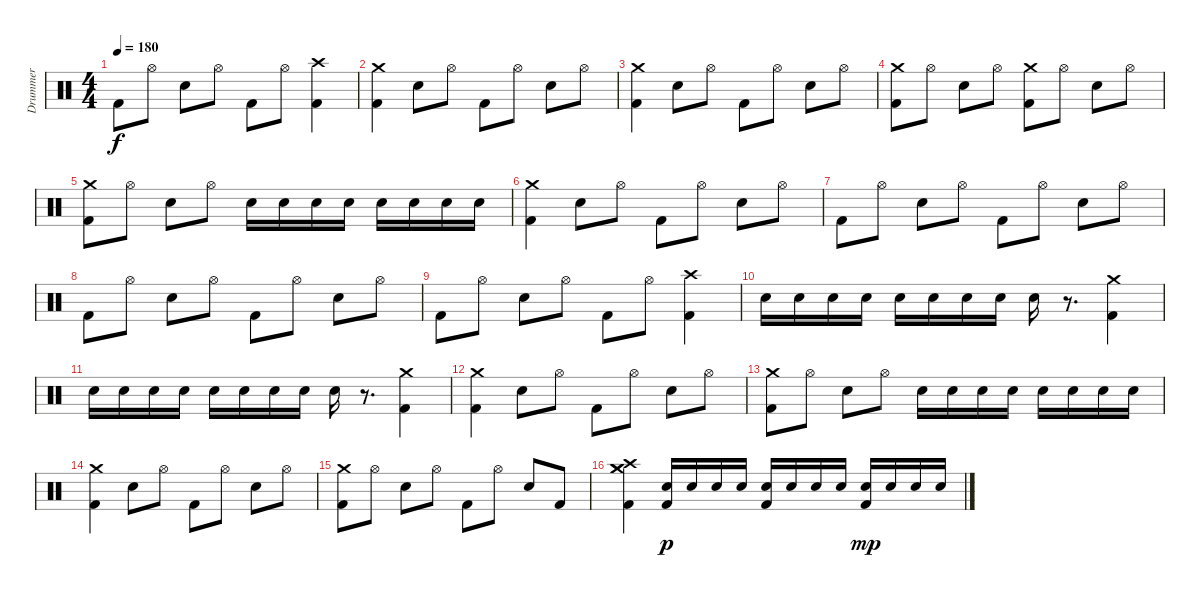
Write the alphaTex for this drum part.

\track ("Drummer" "Drummer") {instrument percussion}
\staff {score}
\articulation defaults
\ts (4 4)
\tempo 180
\clef neutral
\ks c "Kick (hit) 2".8{dy f} "Hi-Hat (open)".8 "Electric Snare (hit)".8 "Hi-Hat (open)".8 "Kick (hit) 2".8 "Hi-Hat (open)".8
("Crash high (hit)" "Kick (hit) 2").4 |
("Crash medium (hit)" "Kick (hit) 2").4 "Electric Snare (hit)".8 "Hi-Hat (open)".8 "Kick (hit) 2".8 "Hi-Hat (open)".8 "Electric Snare (hit)".8 "Hi-Hat (open)".8 |
("Crash medium (hit)" "Kick (hit) 2").4 "Electric Snare (hit)".8 "Hi-Hat (open)".8 "Kick (hit) 2".8 "Hi-Hat (open)".8 "Electric Snare (hit)".8 "Hi-Hat (open)".8 |
("Crash medium (hit)" "Kick (hit) 2").8 "Hi-Hat (open)".8 "Electric Snare (hit)".8 "Hi-Hat (open)".8 ("Crash medium (hit)" "Kick (hit) 2").8 "Hi-Hat (open)".8 "Electric Snare (hit)".8 "Hi-Hat (open)".8 |
("Crash medium (hit)" "Kick (hit) 2").8 "Hi-Hat (open)".8 "Electric Snare (hit)".8 "Hi-Hat (open)".8 "Electric Snare (hit)".16 "Electric Snare (hit)".16 "Electric Snare (hit)".16 "Electric Snare (hit)".16 "Electric Snare (hit)".16 "Electric Snare (hit)".16 "Electric Snare (hit)".16 "Electric Snare (hit)".16 |
("Crash medium (hit)" "Kick (hit) 2").4 "Electric Snare (hit)".8 "Hi-Hat (open)".8 "Kick (hit) 2".8 "Hi-Hat (open)".8 "Electric Snare (hit)".8 "Hi-Hat (open)".8 |
"Kick (hit) 2".8 "Hi-Hat (open)".8 "Electric Snare (hit)".8 "Hi-Hat (open)".8 "Kick (hit) 2".8 "Hi-Hat (open)".8 "Electric Snare (hit)".8 "Hi-Hat (open)".8 |
"Kick (hit) 2".8 "Hi-Hat (open)".8 "Electric Snare (hit)".8 "Hi-Hat (open)".8 "Kick (hit) 2".8 "Hi-Hat (open)".8 "Electric Snare (hit)".8 "Hi-Hat (open)".8 |
"Kick (hit) 2".8 "Hi-Hat (open)".8 "Electric Snare (hit)".8 "Hi-Hat (open)".8 "Kick (hit) 2".8 "Hi-Hat (open)".8 ("Crash high (hit)" "Kick (hit) 2").4 |
"Electric Snare (hit)".16 "Electric Snare (hit)".16 "Electric Snare (hit)".16 "Electric Snare (hit)".16 "Electric Snare (hit)".16 "Electric Snare (hit)".16 "Electric Snare (hit)".16 "Electric Snare (hit)".16 "Electric Snare (hit)".16 r.8{d} ("Crash medium (hit)" "Kick (hit) 2").4 |
"Electric Snare (hit)".16 "Electric Snare (hit)".16 "Electric Snare (hit)".16 "Electric Snare (hit)".16 "Electric Snare (hit)".16 "Electric Snare (hit)".16 "Electric Snare (hit)".16 "Electric Snare (hit)".16 "Electric Snare (hit)".16 r.8{d} ("Crash medium (hit)" "Kick (hit) 2").4 |
("Crash medium (hit)" "Kick (hit) 2").4 "Electric Snare (hit)".8 "Hi-Hat (open)".8 "Kick (hit) 2".8 "Hi-Hat (open)".8 "Electric Snare (hit)".8 "Hi-Hat (open)".8 |
("Crash medium (hit)" "Kick (hit) 2").8 "Hi-Hat (open)".8 "Electric Snare (hit)".8 "Hi-Hat (open)".8 "Electric Snare (hit)".16 "Electric Snare (hit)".16 "Electric Snare (hit)".16 "Electric Snare (hit)".16 "Electric Snare (hit)".16 "Electric Snare (hit)".16 "Electric Snare (hit)".16 "Electric Snare (hit)".16 |
("Crash medium (hit)" "Kick (hit) 2").4 "Electric Snare (hit)".8 "Hi-Hat (open)".8 "Kick (hit) 2".8 "Hi-Hat (open)".8 "Electric Snare (hit)".8 "Hi-Hat (open)".8 |
("Crash medium (hit)" "Kick (hit) 2").8 "Hi-Hat (open)".8 "Electric Snare (hit)".8 "Hi-Hat (open)".8 "Kick (hit) 2".8 "Hi-Hat (open)".8 "Electric Snare (hit)".8 "Kick (hit) 2".8 |
("Crash medium (hit)" "Crash medium (hit)" "Crash high (hit)" "Kick (hit) 2").4 ("Electric Snare (hit)" "Kick (hit) 2").16{dy p} "Electric Snare (hit)".16 "Electric Snare (hit)".16 "Electric Snare (hit)".16 ("Electric Snare (hit)" "Kick (hit) 2").16 "Electric Snare (hit)".16 "Electric Snare (hit)".16 "Electric Snare (hit)".16 ("Electric Snare (hit)" "Kick (hit) 2").16{dy mp} "Electric Snare (hit)".16 "Electric Snare (hit)".16 "Electric Snare (hit)".16
